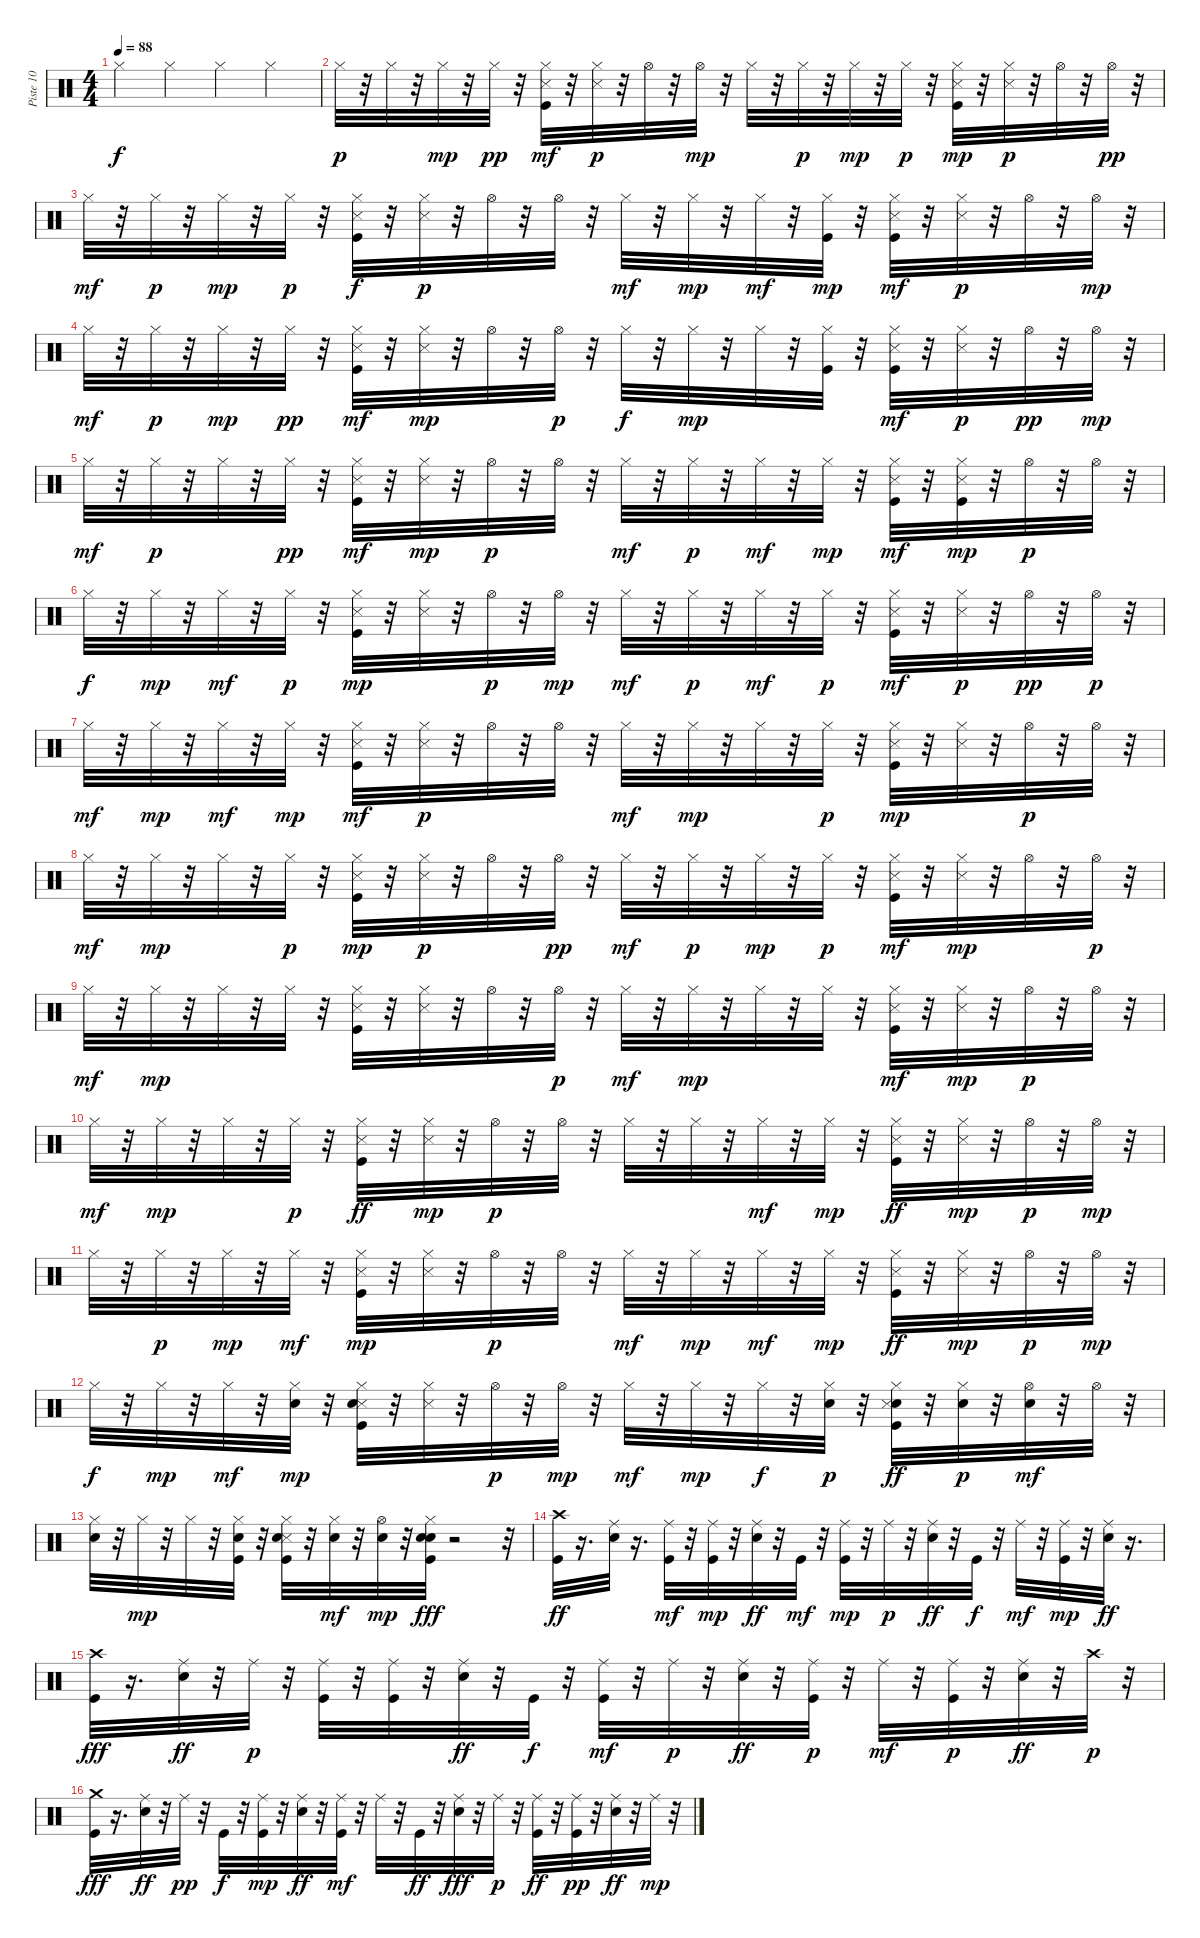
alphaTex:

\track ("Piste 10" "Piste 10") {instrument percussion}
\staff {score}
\articulation defaults
\ts (4 4)
\tempo 88
\clef neutral
\ks c "Hi-Hat (closed)".4{dy f} "Hi-Hat (closed)".4 "Hi-Hat (closed)".4 "Hi-Hat (closed)".4
|
"Hi-Hat (closed)".32{dy p} r.32 "Hi-Hat (closed)".32 r.32 "Hi-Hat (closed)".32{dy mp} r.32 "Hi-Hat (closed)".32{dy pp} r.32 ("Snare (side stick) 3" "Kick (hit)" "Hi-Hat (closed)").32{dy mf} r.32 ("Snare (side stick) 3" "Hi-Hat (closed)").32{dy p} r.32 "Hi-Hat (open)".32 r.32 "Hi-Hat (open)".32{dy mp} r.32 "Hi-Hat (closed)".32 r.32 "Hi-Hat (closed)".32{dy p} r.32 "Hi-Hat (closed)".32{dy mp} r.32 "Hi-Hat (closed)".32{dy p} r.32 ("Kick (hit)" "Snare (side stick) 3" "Hi-Hat (closed)").32{dy mp} r.32 ("Snare (side stick) 3" "Hi-Hat (closed)").32{dy p} r.32 "Hi-Hat (open)".32 r.32 "Hi-Hat (open)".32{dy pp} r.32 |
"Hi-Hat (closed)".32{dy mf} r.32 "Hi-Hat (closed)".32{dy p} r.32 "Hi-Hat (closed)".32{dy mp} r.32 "Hi-Hat (closed)".32{dy p} r.32 ("Kick (hit)" "Snare (side stick) 3" "Hi-Hat (closed)").32{dy f} r.32 ("Snare (side stick) 3" "Hi-Hat (closed)").32{dy p} r.32 "Hi-Hat (open)".32 r.32 "Hi-Hat (open)".32 r.32 "Hi-Hat (closed)".32{dy mf} r.32 "Hi-Hat (closed)".32{dy mp} r.32 "Hi-Hat (closed)".32{dy mf} r.32 ("Kick (hit)" "Hi-Hat (closed)").32{dy mp} r.32 ("Snare (side stick) 3" "Kick (hit)" "Hi-Hat (closed)").32{dy mf} r.32 ("Snare (side stick) 3" "Hi-Hat (closed)").32{dy p} r.32 "Hi-Hat (open)".32 r.32 "Hi-Hat (open)".32{dy mp} r.32 |
"Hi-Hat (closed)".32{dy mf} r.32 "Hi-Hat (closed)".32{dy p} r.32 "Hi-Hat (closed)".32{dy mp} r.32 "Hi-Hat (closed)".32{dy pp} r.32 ("Kick (hit)" "Snare (side stick) 3" "Hi-Hat (closed)").32{dy mf} r.32 ("Snare (side stick) 3" "Hi-Hat (closed)").32{dy mp} r.32 "Hi-Hat (open)".32 r.32 "Hi-Hat (open)".32{dy p} r.32 "Hi-Hat (closed)".32{dy f} r.32 "Hi-Hat (closed)".32{dy mp} r.32 "Hi-Hat (closed)".32 r.32 ("Kick (hit)" "Hi-Hat (closed)").32 r.32 ("Snare (side stick) 3" "Kick (hit)" "Hi-Hat (closed)").32{dy mf} r.32 ("Snare (side stick) 3" "Hi-Hat (closed)").32{dy p} r.32 "Hi-Hat (open)".32{dy pp} r.32 "Hi-Hat (open)".32{dy mp} r.32 |
"Hi-Hat (closed)".32{dy mf} r.32 "Hi-Hat (closed)".32{dy p} r.32 "Hi-Hat (closed)".32 r.32 "Hi-Hat (closed)".32{dy pp} r.32 ("Hi-Hat (closed)" "Snare (side stick) 3" "Kick (hit)").32{dy mf} r.32 ("Hi-Hat (closed)" "Snare (side stick) 3").32{dy mp} r.32 "Hi-Hat (open)".32{dy p} r.32 "Hi-Hat (open)".32 r.32 "Hi-Hat (closed)".32{dy mf} r.32 "Hi-Hat (closed)".32{dy p} r.32 "Hi-Hat (closed)".32{dy mf} r.32 "Hi-Hat (closed)".32{dy mp} r.32 ("Kick (hit)" "Snare (side stick) 3" "Hi-Hat (closed)").32{dy mf} r.32 ("Snare (side stick) 3" "Kick (hit)" "Hi-Hat (closed)").32{dy mp} r.32 "Hi-Hat (open)".32{dy p} r.32 "Hi-Hat (open)".32 r.32 |
"Hi-Hat (closed)".32{dy f} r.32 "Hi-Hat (closed)".32{dy mp} r.32 "Hi-Hat (closed)".32{dy mf} r.32 "Hi-Hat (closed)".32{dy p} r.32 ("Snare (side stick) 3" "Kick (hit)" "Hi-Hat (closed)").32{dy mp} r.32 ("Hi-Hat (closed)" "Snare (side stick) 3").32 r.32 "Hi-Hat (open)".32{dy p} r.32 "Hi-Hat (open)".32{dy mp} r.32 "Hi-Hat (closed)".32{dy mf} r.32 "Hi-Hat (closed)".32{dy p} r.32 "Hi-Hat (closed)".32{dy mf} r.32 "Hi-Hat (closed)".32{dy p} r.32 ("Kick (hit)" "Hi-Hat (closed)" "Snare (side stick) 3").32{dy mf} r.32 ("Snare (side stick) 3" "Hi-Hat (closed)").32{dy p} r.32 "Hi-Hat (open)".32{dy pp} r.32 "Hi-Hat (open)".32{dy p} r.32 |
"Hi-Hat (closed)".32{dy mf} r.32 "Hi-Hat (closed)".32{dy mp} r.32 "Hi-Hat (closed)".32{dy mf} r.32 "Hi-Hat (closed)".32{dy mp} r.32 ("Hi-Hat (closed)" "Snare (side stick) 3" "Kick (hit)").32{dy mf} r.32 ("Snare (side stick) 3" "Hi-Hat (closed)").32{dy p} r.32 "Hi-Hat (open)".32 r.32 "Hi-Hat (open)".32 r.32 "Hi-Hat (closed)".32{dy mf} r.32 "Hi-Hat (closed)".32{dy mp} r.32 "Hi-Hat (closed)".32 r.32 "Hi-Hat (closed)".32{dy p} r.32 ("Kick (hit)" "Snare (side stick) 3" "Hi-Hat (closed)").32{dy mp} r.32 ("Snare (side stick) 3" "Hi-Hat (closed)").32 r.32 "Hi-Hat (open)".32{dy p} r.32 "Hi-Hat (open)".32 r.32 |
"Hi-Hat (closed)".32{dy mf} r.32 "Hi-Hat (closed)".32{dy mp} r.32 "Hi-Hat (closed)".32 r.32 "Hi-Hat (closed)".32{dy p} r.32 ("Kick (hit)" "Hi-Hat (closed)" "Snare (side stick) 3").32{dy mp} r.32 ("Snare (side stick) 3" "Hi-Hat (closed)").32{dy p} r.32 "Hi-Hat (open)".32 r.32 "Hi-Hat (open)".32{dy pp} r.32 "Hi-Hat (closed)".32{dy mf} r.32 "Hi-Hat (closed)".32{dy p} r.32 "Hi-Hat (closed)".32{dy mp} r.32 "Hi-Hat (closed)".32{dy p} r.32 ("Hi-Hat (closed)" "Kick (hit)" "Snare (side stick) 3").32{dy mf} r.32 ("Snare (side stick) 3" "Hi-Hat (closed)").32{dy mp} r.32 "Hi-Hat (open)".32 r.32 "Hi-Hat (open)".32{dy p} r.32 |
"Hi-Hat (closed)".32{dy mf} r.32 "Hi-Hat (closed)".32{dy mp} r.32 "Hi-Hat (closed)".32 r.32 "Hi-Hat (closed)".32 r.32 ("Hi-Hat (closed)" "Kick (hit)" "Snare (side stick) 3").32 r.32 ("Hi-Hat (closed)" "Snare (side stick) 3").32 r.32 "Hi-Hat (open)".32 r.32 "Hi-Hat (open)".32{dy p} r.32 "Hi-Hat (closed)".32{dy mf} r.32 "Hi-Hat (closed)".32{dy mp} r.32 "Hi-Hat (closed)".32 r.32 "Hi-Hat (closed)".32 r.32 ("Kick (hit)" "Snare (side stick) 3" "Hi-Hat (closed)").32{dy mf} r.32 ("Hi-Hat (closed)" "Snare (side stick) 3").32{dy mp} r.32 "Hi-Hat (open)".32{dy p} r.32 "Hi-Hat (open)".32 r.32 |
"Hi-Hat (closed)".32{dy mf} r.32 "Hi-Hat (closed)".32{dy mp} r.32 "Hi-Hat (closed)".32 r.32 "Hi-Hat (closed)".32{dy p} r.32 ("Hi-Hat (closed)" "Kick (hit)" "Snare (side stick) 3").32{dy ff} r.32 ("Hi-Hat (closed)" "Snare (side stick) 3").32{dy mp} r.32 "Hi-Hat (open)".32{dy p} r.32 "Hi-Hat (open)".32 r.32 "Hi-Hat (closed)".32 r.32 "Hi-Hat (closed)".32 r.32 "Hi-Hat (closed)".32{dy mf} r.32 "Hi-Hat (closed)".32{dy mp} r.32 ("Hi-Hat (closed)" "Snare (side stick) 3" "Kick (hit)").32{dy ff} r.32 ("Hi-Hat (closed)" "Snare (side stick) 3").32{dy mp} r.32 "Hi-Hat (open)".32{dy p} r.32 "Hi-Hat (open)".32{dy mp} r.32 |
"Hi-Hat (closed)".32 r.32 "Hi-Hat (closed)".32{dy p} r.32 "Hi-Hat (closed)".32{dy mp} r.32 "Hi-Hat (closed)".32{dy mf} r.32 ("Snare (side stick) 3" "Kick (hit)" "Hi-Hat (closed)").32{dy mp} r.32 ("Snare (side stick) 3" "Hi-Hat (closed)").32 r.32 "Hi-Hat (open)".32{dy p} r.32 "Hi-Hat (open)".32 r.32 "Hi-Hat (closed)".32{dy mf} r.32 "Hi-Hat (closed)".32{dy mp} r.32 "Hi-Hat (closed)".32{dy mf} r.32 "Hi-Hat (closed)".32{dy mp} r.32 ("Hi-Hat (closed)" "Snare (side stick) 3" "Kick (hit)").32{dy ff} r.32 ("Snare (side stick) 3" "Hi-Hat (closed)").32{dy mp} r.32 "Hi-Hat (open)".32{dy p} r.32 "Hi-Hat (open)".32{dy mp} r.32 |
"Hi-Hat (closed)".32{dy f} r.32 "Hi-Hat (closed)".32{dy mp} r.32 "Hi-Hat (closed)".32{dy mf} r.32 ("Hi-Hat (closed)" "Electric Snare (hit)").32{dy mp} r.32 ("Hi-Hat (closed)" "Snare (side stick) 3" "Kick (hit)" "Electric Snare (hit)").32 r.32 ("Hi-Hat (closed)" "Snare (side stick) 3").32 r.32 "Hi-Hat (open)".32{dy p} r.32 "Hi-Hat (open)".32{dy mp} r.32 "Hi-Hat (closed)".32{dy mf} r.32 "Hi-Hat (closed)".32{dy mp} r.32 "Hi-Hat (closed)".32{dy f} r.32 ("Hi-Hat (closed)" "Electric Snare (hit)").32{dy p} r.32 ("Hi-Hat (closed)" "Electric Snare (hit)" "Kick (hit)" "Snare (side stick) 3").32{dy ff} r.32 ("Hi-Hat (closed)" "Electric Snare (hit)").32{dy p} r.32 ("Hi-Hat (open)" "Electric Snare (hit)").32{dy mf} r.32 "Hi-Hat (open)".32 r.32 |
("Hi-Hat (closed)" "Electric Snare (hit)").32 r.32 "Hi-Hat (closed)".32{dy mp} r.32 "Hi-Hat (closed)".32 r.32 ("Hi-Hat (closed)" "Kick (hit)" "Electric Snare (hit)").32 r.32 ("Hi-Hat (closed)" "Snare (side stick) 3" "Kick (hit)" "Electric Snare (hit)").32 r.32 ("Hi-Hat (closed)" "Electric Snare (hit)").32{dy mf} r.32 ("Hi-Hat (open)" "Electric Snare (hit)").32{dy mp} r.32 ("Electric Snare (hit)" "Hi-Hat (closed)" "Kick (hit)" "Electric Snare (hit)").32{dy fff} r.2 r.32 |
("Crash high (hit)" "Kick (hit)").32{dy ff} r.16{d} ("Ride (middle)" "Electric Snare (hit)").32 r.16{d} ("Ride (middle)" "Kick (hit)").32{dy mf} r.32 ("Ride (middle)" "Kick (hit)").32{dy mp} r.32 ("Ride (middle)" "Electric Snare (hit)").32{dy ff} r.32 "Kick (hit)".32{dy mf} r.32 ("Ride (middle)" "Kick (hit)").32{dy mp} r.32 "Ride (middle)".32{dy p} r.32 ("Ride (middle)" "Electric Snare (hit)").32{dy ff} r.32 "Kick (hit)".32{dy f} r.32 "Ride (middle)".32{dy mf} r.32 ("Ride (middle)" "Kick (hit)").32{dy mp} r.32 ("Ride (middle)" "Electric Snare (hit)").32{dy ff} r.16{d} |
("Crash high (hit)" "Kick (hit)").32{dy fff} r.16{d} ("Ride (middle)" "Electric Snare (hit)").32{dy ff} r.32 "Ride (middle)".32{dy p} r.32 ("Ride (middle)" "Kick (hit)").32 r.32 ("Ride (middle)" "Kick (hit)").32 r.32 ("Ride (middle)" "Electric Snare (hit)").32{dy ff} r.32 "Kick (hit)".32{dy f} r.32 ("Ride (middle)" "Kick (hit)").32{dy mf} r.32 "Ride (middle)".32{dy p} r.32 ("Ride (middle)" "Electric Snare (hit)").32{dy ff} r.32 ("Ride (middle)" "Kick (hit)").32{dy p} r.32 "Ride (middle)".32{dy mf} r.32 ("Ride (middle)" "Kick (hit)").32{dy p} r.32 ("Ride (middle)" "Electric Snare (hit)").32{dy ff} r.32 "Crash high (hit)".32{dy p} r.32 |
("Crash medium (hit)" "Kick (hit)").32{dy fff} r.16{d} ("Ride (middle)" "Electric Snare (hit)").32{dy ff} r.32 "Ride (middle)".32{dy pp} r.32 "Kick (hit)".32{dy f} r.32 ("Ride (middle)" "Kick (hit)").32{dy mp} r.32 ("Ride (middle)" "Electric Snare (hit)").32{dy ff} r.32 ("Ride (middle)" "Kick (hit)").32{dy mf} r.32 "Ride (middle)".32 r.32 "Kick (hit)".32{dy ff} r.32 ("Ride (middle)" "Electric Snare (hit)").32{dy fff} r.32 "Ride (middle)".32{dy p} r.32 ("Ride (middle)" "Kick (hit)").32{dy ff} r.32 ("Ride (middle)" "Kick (hit)").32{dy pp} r.32 ("Ride (middle)" "Electric Snare (hit)").32{dy ff} r.32 "Ride (middle)".32{dy mp} r.32
